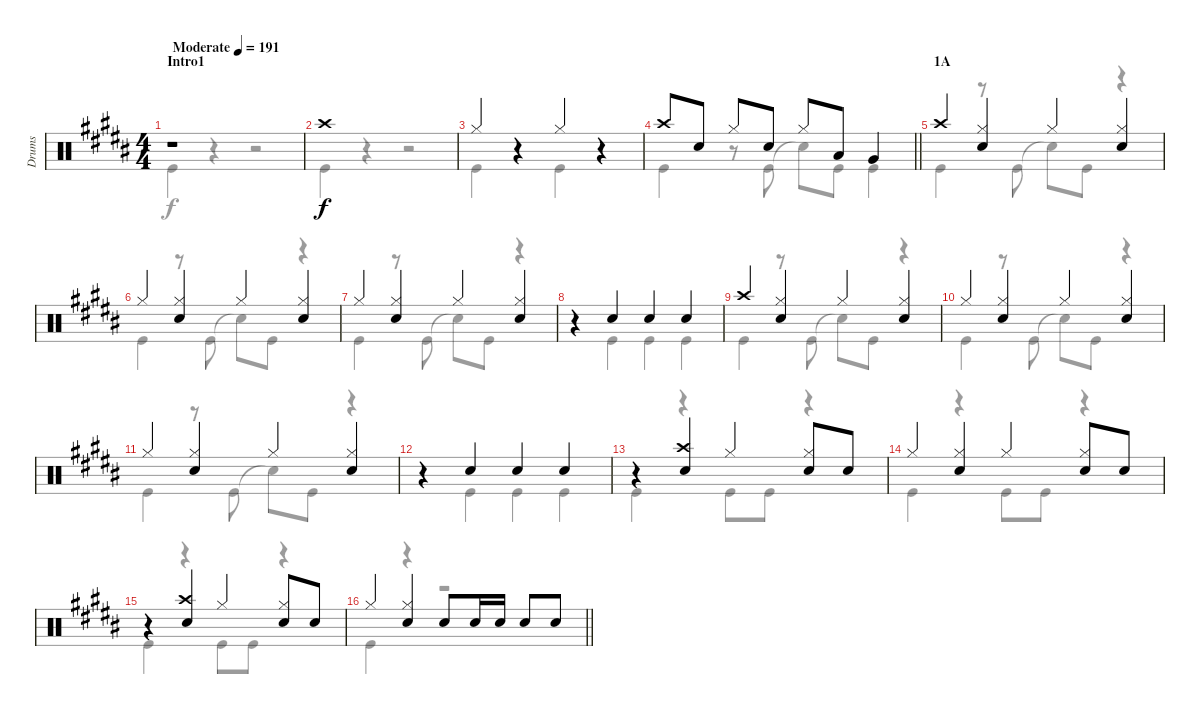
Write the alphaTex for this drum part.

\track ("Drums" "Drums") {instrument percussion}
\staff {score}
\articulation defaults
\voice
\ts (4 4)
\section ("" "Intro1")
\tempo (191 "Moderate")
\clef neutral
\ks b
r.1{dy f} |
"Crash high (hit)".1 |
"Hi-Hat (closed)".4 r.4 "Hi-Hat (closed)".4 r.4 |
\barLineRight lightlight "Crash high (hit)".8 "Snare (hit) 2".8 "Hi-Hat (closed)".8 "Snare (hit) 2".8 "Hi-Hat (closed)".8 "Low Tom (hit)".8 "Very Low Tom (hit)".4
|
\section ("" "1A")
"Crash high (hit)".4 ("Hi-Hat (closed)" "Snare (hit) 2").4 "Hi-Hat (closed)".4 ("Hi-Hat (closed)" "Snare (hit) 2").4 |
"Hi-Hat (closed)".4 ("Hi-Hat (closed)" "Snare (hit) 2").4 "Hi-Hat (closed)".4 ("Hi-Hat (closed)" "Snare (hit) 2").4 |
"Hi-Hat (closed)".4 ("Hi-Hat (closed)" "Snare (hit) 2").4 "Hi-Hat (closed)".4 ("Hi-Hat (closed)" "Snare (hit) 2").4 |
r.4 "Snare (hit) 2".4 "Snare (hit) 2".4 "Snare (hit) 2".4 |
"Crash high (hit)".4 ("Hi-Hat (closed)" "Snare (hit) 2").4 "Hi-Hat (closed)".4 ("Hi-Hat (closed)" "Snare (hit) 2").4 |
"Hi-Hat (closed)".4 ("Hi-Hat (closed)" "Snare (hit) 2").4 "Hi-Hat (closed)".4 ("Hi-Hat (closed)" "Snare (hit) 2").4 |
"Hi-Hat (closed)".4 ("Hi-Hat (closed)" "Snare (hit) 2").4 "Hi-Hat (closed)".4 ("Hi-Hat (closed)" "Snare (hit) 2").4 |
r.4 "Snare (hit) 2".4 "Snare (hit) 2".4 "Snare (hit) 2".4 |
r.4 ("Crash high (hit)" "Snare (hit) 2").4 "Hi-Hat (closed)".4 ("Hi-Hat (closed)" "Snare (hit) 2").8 "Snare (hit) 2".8 |
"Hi-Hat (closed)".4 ("Hi-Hat (closed)" "Snare (hit) 2").4 "Hi-Hat (closed)".4 ("Hi-Hat (closed)" "Snare (hit) 2").8 "Snare (hit) 2".8 |
r.4 ("Crash high (hit)" "Snare (hit) 2").4 "Hi-Hat (closed)".4 ("Hi-Hat (closed)" "Snare (hit) 2").8 "Snare (hit) 2".8 |
\barLineRight lightlight "Hi-Hat (closed)".4
("Hi-Hat (closed)" "Snare (hit) 2").4 "Snare (hit) 2".8 "Snare (hit) 2".16 "Snare (hit) 2".16 "Snare (hit) 2".8 "Snare (hit) 2".8
\voice
\clef neutral
\ottava regular
\simile none
\ks b "Kick (hit)".4{dy f}
r.4 r.2 |
"Kick (hit)".4 r.4 r.2 |
"Kick (hit)".4 r.4 "Kick (hit)".4 r.4 |
\barLineRight lightlight "Kick (hit)".4
r.8 "Kick (hit)".8 "Snare (hit)"{t}.8 "Kick (hit)".8 "Kick (hit)".4 |
"Kick (hit)".4 r.8 "Kick (hit)".8 "Snare (hit)"{t}.8 "Kick (hit)".8 r.4 |
"Kick (hit)".4 r.8 "Kick (hit)".8 "Snare (hit)"{t}.8 "Kick (hit)".8 r.4 |
"Kick (hit)".4 r.8 "Kick (hit)".8 "Snare (hit)"{t}.8 "Kick (hit)".8 r.4 |
r.4 "Kick (hit)".4 "Kick (hit)".4 "Kick (hit)".4 |
"Kick (hit)".4 r.8 "Kick (hit)".8 "Snare (hit)"{t}.8 "Kick (hit)".8 r.4 |
"Kick (hit)".4 r.8 "Kick (hit)".8 "Snare (hit)"{t}.8 "Kick (hit)".8 r.4 |
"Kick (hit)".4 r.8 "Kick (hit)".8 "Snare (hit)"{t}.8 "Kick (hit)".8 r.4 |
r.4 "Kick (hit)".4 "Kick (hit)".4 "Kick (hit)".4 |
"Kick (hit)".4 r.4 "Kick (hit)".8 "Kick (hit)".8 r.4 |
"Kick (hit)".4 r.4 "Kick (hit)".8 "Kick (hit)".8 r.4 |
"Kick (hit)".4 r.4 "Kick (hit)".8 "Kick (hit)".8 r.4 |
\barLineRight lightlight "Kick (hit)".4
r.4 r.2
